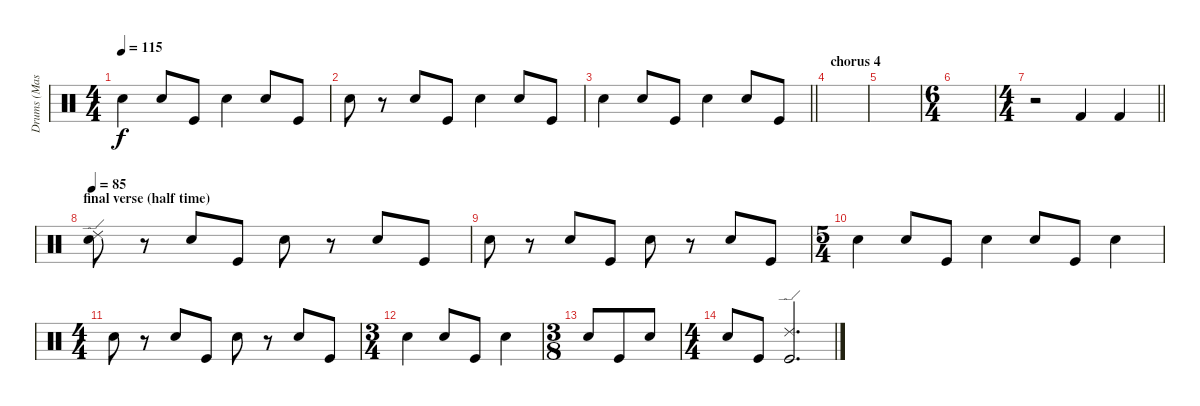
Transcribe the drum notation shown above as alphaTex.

\track ("Drums (Mason)" "Drums (Mas") {instrument percussion}
\staff {score}
\articulation defaults
\ts (4 4)
\tempo 115
\clef neutral
\ks c "Snare (hit) 2".4{dy f} "Snare (hit) 2".8 "Kick (hit)".8 "Snare (hit) 2".4 "Snare (hit) 2".8 "Kick (hit)".8
|
"Snare (hit) 2".8 r.8 "Snare (hit) 2".8 "Kick (hit)".8 "Snare (hit) 2".4 "Snare (hit) 2".8 "Kick (hit)".8 |
\barLineRight lightlight "Snare (hit) 2".4 "Snare (hit) 2".8 "Kick (hit)".8 "Snare (hit) 2".4 "Snare (hit) 2".8 "Kick (hit)".8
|
\section ("" "chorus 4")
|
|
\ts (6 4)
|
\ts (4 4)
\barLineRight lightlight
r.2 "Kick (hit) 2".4 "Kick (hit) 2".4 |
\section ("" "final verse (half time)")
\tempo 85
("Ride (edge) 2" "Snare (hit) 2").8 r.8 "Snare (hit) 2".8 "Kick (hit)".8 "Snare (hit) 2".8 r.8 "Snare (hit) 2".8 "Kick (hit)".8 |
"Snare (hit) 2".8 r.8 "Snare (hit) 2".8 "Kick (hit)".8 "Snare (hit) 2".8 r.8 "Snare (hit) 2".8 "Kick (hit)".8 |
\ts (5 4)
"Snare (hit) 2".4 "Snare (hit) 2".8 "Kick (hit)".8 "Snare (hit) 2".4 "Snare (hit) 2".8 "Kick (hit)".8 "Snare (hit) 2".4 |
\ts (4 4)
"Snare (hit) 2".8 r.8 "Snare (hit) 2".8 "Kick (hit)".8 "Snare (hit) 2".8 r.8 "Snare (hit) 2".8 "Kick (hit)".8 |
\ts (3 4)
"Snare (hit) 2".4 "Snare (hit) 2".8 "Kick (hit)".8 "Snare (hit) 2".4 |
\ts (3 8)
"Snare (hit) 2".8 "Kick (hit)".8 "Snare (hit) 2".8 |
\ts (4 4)
"Snare (hit) 2".8 "Kick (hit)".8 ("Kick (hit)" "Ride (edge) 2").2{d}
